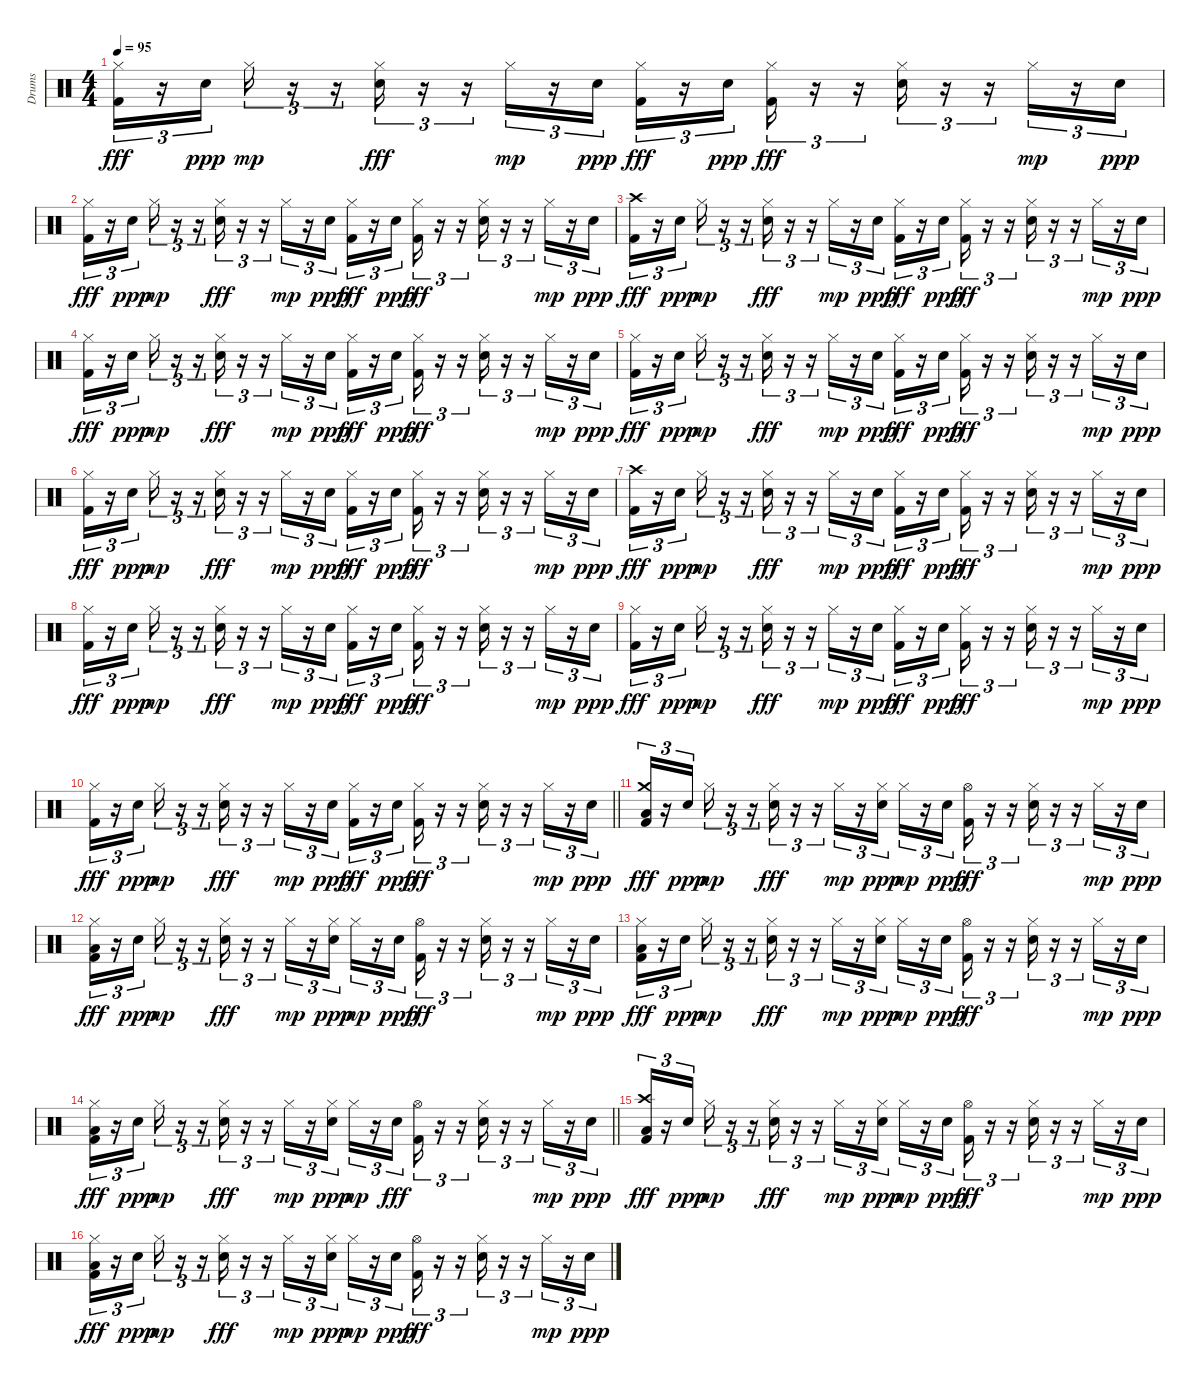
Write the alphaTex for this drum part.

\track ("Drums" "Drums") {instrument percussion}
\staff {score}
\articulation defaults
\ts (4 4)
\tempo 95
\clef neutral
\ks c
("Hi-Hat (closed)" "Kick (hit) 2").16{tu (3 2) dy fff} r.16{tu (3 2)} "Electric Snare (hit)".16{tu (3 2) dy ppp} "Hi-Hat (closed)".16{tu (3 2) dy mp} r.16{tu (3 2)} r.16{tu (3 2)} ("Hi-Hat (closed)" "Electric Snare (hit)").16{tu (3 2) dy fff} r.16{tu (3 2)} r.16{tu (3 2)} "Hi-Hat (closed)".16{tu (3 2) dy mp} r.16{tu (3 2)} "Electric Snare (hit)".16{tu (3 2) dy ppp} ("Hi-Hat (closed)" "Kick (hit) 2").16{tu (3 2) dy fff} r.16{tu (3 2)} "Electric Snare (hit)".16{tu (3 2) dy ppp} ("Hi-Hat (closed)" "Kick (hit) 2").16{tu (3 2) dy fff} r.16{tu (3 2)} r.16{tu (3 2)} ("Hi-Hat (closed)" "Electric Snare (hit)").16{tu (3 2)} r.16{tu (3 2)} r.16{tu (3 2)} "Hi-Hat (closed)".16{tu (3 2) dy mp} r.16{tu (3 2)} "Electric Snare (hit)".16{tu (3 2) dy ppp} |
("Hi-Hat (closed)" "Kick (hit) 2").16{tu (3 2) dy fff} r.16{tu (3 2)} "Electric Snare (hit)".16{tu (3 2) dy ppp} "Hi-Hat (closed)".16{tu (3 2) dy mp} r.16{tu (3 2)} r.16{tu (3 2)} ("Hi-Hat (closed)" "Electric Snare (hit)").16{tu (3 2) dy fff} r.16{tu (3 2)} r.16{tu (3 2)} "Hi-Hat (closed)".16{tu (3 2) dy mp} r.16{tu (3 2)} "Electric Snare (hit)".16{tu (3 2) dy ppp} ("Hi-Hat (closed)" "Kick (hit) 2").16{tu (3 2) dy fff} r.16{tu (3 2)} "Electric Snare (hit)".16{tu (3 2) dy ppp} ("Hi-Hat (closed)" "Kick (hit) 2").16{tu (3 2) dy fff} r.16{tu (3 2)} r.16{tu (3 2)} ("Hi-Hat (closed)" "Electric Snare (hit)").16{tu (3 2)} r.16{tu (3 2)} r.16{tu (3 2)} "Hi-Hat (closed)".16{tu (3 2) dy mp} r.16{tu (3 2)} "Electric Snare (hit)".16{tu (3 2) dy ppp} |
("Crash high (hit)" "Kick (hit) 2").16{tu (3 2) dy fff} r.16{tu (3 2)} "Electric Snare (hit)".16{tu (3 2) dy ppp} "Hi-Hat (closed)".16{tu (3 2) dy mp} r.16{tu (3 2)} r.16{tu (3 2)} ("Hi-Hat (closed)" "Electric Snare (hit)").16{tu (3 2) dy fff} r.16{tu (3 2)} r.16{tu (3 2)} "Hi-Hat (closed)".16{tu (3 2) dy mp} r.16{tu (3 2)} "Electric Snare (hit)".16{tu (3 2) dy ppp} ("Hi-Hat (closed)" "Kick (hit) 2").16{tu (3 2) dy fff} r.16{tu (3 2)} "Electric Snare (hit)".16{tu (3 2) dy ppp} ("Hi-Hat (closed)" "Kick (hit) 2").16{tu (3 2) dy fff} r.16{tu (3 2)} r.16{tu (3 2)} ("Hi-Hat (closed)" "Electric Snare (hit)").16{tu (3 2)} r.16{tu (3 2)} r.16{tu (3 2)} "Hi-Hat (closed)".16{tu (3 2) dy mp} r.16{tu (3 2)} "Electric Snare (hit)".16{tu (3 2) dy ppp} |
("Hi-Hat (closed)" "Kick (hit) 2").16{tu (3 2) dy fff} r.16{tu (3 2)} "Electric Snare (hit)".16{tu (3 2) dy ppp} "Hi-Hat (closed)".16{tu (3 2) dy mp} r.16{tu (3 2)} r.16{tu (3 2)} ("Hi-Hat (closed)" "Electric Snare (hit)").16{tu (3 2) dy fff} r.16{tu (3 2)} r.16{tu (3 2)} "Hi-Hat (closed)".16{tu (3 2) dy mp} r.16{tu (3 2)} "Electric Snare (hit)".16{tu (3 2) dy ppp} ("Hi-Hat (closed)" "Kick (hit) 2").16{tu (3 2) dy fff} r.16{tu (3 2)} "Electric Snare (hit)".16{tu (3 2) dy ppp} ("Hi-Hat (closed)" "Kick (hit) 2").16{tu (3 2) dy fff} r.16{tu (3 2)} r.16{tu (3 2)} ("Hi-Hat (closed)" "Electric Snare (hit)").16{tu (3 2)} r.16{tu (3 2)} r.16{tu (3 2)} "Hi-Hat (closed)".16{tu (3 2) dy mp} r.16{tu (3 2)} "Electric Snare (hit)".16{tu (3 2) dy ppp} |
("Hi-Hat (closed)" "Kick (hit) 2").16{tu (3 2) dy fff} r.16{tu (3 2)} "Electric Snare (hit)".16{tu (3 2) dy ppp} "Hi-Hat (closed)".16{tu (3 2) dy mp} r.16{tu (3 2)} r.16{tu (3 2)} ("Hi-Hat (closed)" "Electric Snare (hit)").16{tu (3 2) dy fff} r.16{tu (3 2)} r.16{tu (3 2)} "Hi-Hat (closed)".16{tu (3 2) dy mp} r.16{tu (3 2)} "Electric Snare (hit)".16{tu (3 2) dy ppp} ("Hi-Hat (closed)" "Kick (hit) 2").16{tu (3 2) dy fff} r.16{tu (3 2)} "Electric Snare (hit)".16{tu (3 2) dy ppp} ("Hi-Hat (closed)" "Kick (hit) 2").16{tu (3 2) dy fff} r.16{tu (3 2)} r.16{tu (3 2)} ("Hi-Hat (closed)" "Electric Snare (hit)").16{tu (3 2)} r.16{tu (3 2)} r.16{tu (3 2)} "Hi-Hat (closed)".16{tu (3 2) dy mp} r.16{tu (3 2)} "Electric Snare (hit)".16{tu (3 2) dy ppp} |
("Hi-Hat (closed)" "Kick (hit) 2").16{tu (3 2) dy fff} r.16{tu (3 2)} "Electric Snare (hit)".16{tu (3 2) dy ppp} "Hi-Hat (closed)".16{tu (3 2) dy mp} r.16{tu (3 2)} r.16{tu (3 2)} ("Hi-Hat (closed)" "Electric Snare (hit)").16{tu (3 2) dy fff} r.16{tu (3 2)} r.16{tu (3 2)} "Hi-Hat (closed)".16{tu (3 2) dy mp} r.16{tu (3 2)} "Electric Snare (hit)".16{tu (3 2) dy ppp} ("Hi-Hat (closed)" "Kick (hit) 2").16{tu (3 2) dy fff} r.16{tu (3 2)} "Electric Snare (hit)".16{tu (3 2) dy ppp} ("Hi-Hat (closed)" "Kick (hit) 2").16{tu (3 2) dy fff} r.16{tu (3 2)} r.16{tu (3 2)} ("Hi-Hat (closed)" "Electric Snare (hit)").16{tu (3 2)} r.16{tu (3 2)} r.16{tu (3 2)} "Hi-Hat (closed)".16{tu (3 2) dy mp} r.16{tu (3 2)} "Electric Snare (hit)".16{tu (3 2) dy ppp} |
("Crash high (hit)" "Kick (hit) 2").16{tu (3 2) dy fff} r.16{tu (3 2)} "Electric Snare (hit)".16{tu (3 2) dy ppp} "Hi-Hat (closed)".16{tu (3 2) dy mp} r.16{tu (3 2)} r.16{tu (3 2)} ("Hi-Hat (closed)" "Electric Snare (hit)").16{tu (3 2) dy fff} r.16{tu (3 2)} r.16{tu (3 2)} "Hi-Hat (closed)".16{tu (3 2) dy mp} r.16{tu (3 2)} "Electric Snare (hit)".16{tu (3 2) dy ppp} ("Hi-Hat (closed)" "Kick (hit) 2").16{tu (3 2) dy fff} r.16{tu (3 2)} "Electric Snare (hit)".16{tu (3 2) dy ppp} ("Hi-Hat (closed)" "Kick (hit) 2").16{tu (3 2) dy fff} r.16{tu (3 2)} r.16{tu (3 2)} ("Hi-Hat (closed)" "Electric Snare (hit)").16{tu (3 2)} r.16{tu (3 2)} r.16{tu (3 2)} "Hi-Hat (closed)".16{tu (3 2) dy mp} r.16{tu (3 2)} "Electric Snare (hit)".16{tu (3 2) dy ppp} |
("Hi-Hat (closed)" "Kick (hit) 2").16{tu (3 2) dy fff} r.16{tu (3 2)} "Electric Snare (hit)".16{tu (3 2) dy ppp} "Hi-Hat (closed)".16{tu (3 2) dy mp} r.16{tu (3 2)} r.16{tu (3 2)} ("Hi-Hat (closed)" "Electric Snare (hit)").16{tu (3 2) dy fff} r.16{tu (3 2)} r.16{tu (3 2)} "Hi-Hat (closed)".16{tu (3 2) dy mp} r.16{tu (3 2)} "Electric Snare (hit)".16{tu (3 2) dy ppp} ("Hi-Hat (closed)" "Kick (hit) 2").16{tu (3 2) dy fff} r.16{tu (3 2)} "Electric Snare (hit)".16{tu (3 2) dy ppp} ("Hi-Hat (closed)" "Kick (hit) 2").16{tu (3 2) dy fff} r.16{tu (3 2)} r.16{tu (3 2)} ("Hi-Hat (closed)" "Electric Snare (hit)").16{tu (3 2)} r.16{tu (3 2)} r.16{tu (3 2)} "Hi-Hat (closed)".16{tu (3 2) dy mp} r.16{tu (3 2)} "Electric Snare (hit)".16{tu (3 2) dy ppp} |
("Hi-Hat (closed)" "Kick (hit) 2").16{tu (3 2) dy fff} r.16{tu (3 2)} "Electric Snare (hit)".16{tu (3 2) dy ppp} "Hi-Hat (closed)".16{tu (3 2) dy mp} r.16{tu (3 2)} r.16{tu (3 2)} ("Hi-Hat (closed)" "Electric Snare (hit)").16{tu (3 2) dy fff} r.16{tu (3 2)} r.16{tu (3 2)} "Hi-Hat (closed)".16{tu (3 2) dy mp} r.16{tu (3 2)} "Electric Snare (hit)".16{tu (3 2) dy ppp} ("Hi-Hat (closed)" "Kick (hit) 2").16{tu (3 2) dy fff} r.16{tu (3 2)} "Electric Snare (hit)".16{tu (3 2) dy ppp} ("Hi-Hat (closed)" "Kick (hit) 2").16{tu (3 2) dy fff} r.16{tu (3 2)} r.16{tu (3 2)} ("Hi-Hat (closed)" "Electric Snare (hit)").16{tu (3 2)} r.16{tu (3 2)} r.16{tu (3 2)} "Hi-Hat (closed)".16{tu (3 2) dy mp} r.16{tu (3 2)} "Electric Snare (hit)".16{tu (3 2) dy ppp} |
\barLineRight lightlight
("Hi-Hat (closed)" "Kick (hit) 2").16{tu (3 2) dy fff} r.16{tu (3 2)} "Electric Snare (hit)".16{tu (3 2) dy ppp} "Hi-Hat (closed)".16{tu (3 2) dy mp} r.16{tu (3 2)} r.16{tu (3 2)} ("Hi-Hat (closed)" "Electric Snare (hit)").16{tu (3 2) dy fff} r.16{tu (3 2)} r.16{tu (3 2)} "Hi-Hat (closed)".16{tu (3 2) dy mp} r.16{tu (3 2)} "Electric Snare (hit)".16{tu (3 2) dy ppp} ("Hi-Hat (closed)" "Kick (hit) 2").16{tu (3 2) dy fff} r.16{tu (3 2)} "Electric Snare (hit)".16{tu (3 2) dy ppp} ("Hi-Hat (closed)" "Kick (hit) 2").16{tu (3 2) dy fff} r.16{tu (3 2)} r.16{tu (3 2)} ("Hi-Hat (closed)" "Electric Snare (hit)").16{tu (3 2)} r.16{tu (3 2)} r.16{tu (3 2)} "Hi-Hat (closed)".16{tu (3 2) dy mp} r.16{tu (3 2)} "Electric Snare (hit)".16{tu (3 2) dy ppp} |
("Crash medium (hit)" "Low Floor Tom (hit)" "Kick (hit) 2").16{tu (3 2) dy fff} r.16{tu (3 2)} "Electric Snare (hit)".16{tu (3 2) dy ppp} "Hi-Hat (closed)".16{tu (3 2) dy mp} r.16{tu (3 2)} r.16{tu (3 2)} ("Hi-Hat (closed)" "Electric Snare (hit)").16{tu (3 2) dy fff} r.16{tu (3 2)} r.16{tu (3 2)} "Hi-Hat (closed)".16{tu (3 2) dy mp} r.16{tu (3 2)} ("Hi-Hat (closed)" "Electric Snare (hit)").16{tu (3 2) dy ppp} "Hi-Hat (closed)".16{tu (3 2) dy mp} r.16{tu (3 2)} "Electric Snare (hit)".16{tu (3 2) dy ppp} ("Hi-Hat (open)" "Kick (hit) 2").16{tu (3 2) dy fff} r.16{tu (3 2)} r.16{tu (3 2)} ("Hi-Hat (closed)" "Electric Snare (hit)").16{tu (3 2)} r.16{tu (3 2)} r.16{tu (3 2)} "Hi-Hat (closed)".16{tu (3 2) dy mp} r.16{tu (3 2)} "Electric Snare (hit)".16{tu (3 2) dy ppp} |
("Hi-Hat (closed)" "Low Floor Tom (hit)" "Kick (hit) 2").16{tu (3 2) dy fff} r.16{tu (3 2)} "Electric Snare (hit)".16{tu (3 2) dy ppp} "Hi-Hat (closed)".16{tu (3 2) dy mp} r.16{tu (3 2)} r.16{tu (3 2)} ("Hi-Hat (closed)" "Electric Snare (hit)").16{tu (3 2) dy fff} r.16{tu (3 2)} r.16{tu (3 2)} "Hi-Hat (closed)".16{tu (3 2) dy mp} r.16{tu (3 2)} ("Hi-Hat (closed)" "Electric Snare (hit)").16{tu (3 2) dy ppp} "Hi-Hat (closed)".16{tu (3 2) dy mp} r.16{tu (3 2)} "Electric Snare (hit)".16{tu (3 2) dy ppp} ("Hi-Hat (open)" "Kick (hit) 2").16{tu (3 2) dy fff} r.16{tu (3 2)} r.16{tu (3 2)} ("Hi-Hat (closed)" "Electric Snare (hit)").16{tu (3 2)} r.16{tu (3 2)} r.16{tu (3 2)} "Hi-Hat (closed)".16{tu (3 2) dy mp} r.16{tu (3 2)} "Electric Snare (hit)".16{tu (3 2) dy ppp} |
("Hi-Hat (closed)" "Low Floor Tom (hit)" "Kick (hit) 2").16{tu (3 2) dy fff} r.16{tu (3 2)} "Electric Snare (hit)".16{tu (3 2) dy ppp} "Hi-Hat (closed)".16{tu (3 2) dy mp} r.16{tu (3 2)} r.16{tu (3 2)} ("Hi-Hat (closed)" "Electric Snare (hit)").16{tu (3 2) dy fff} r.16{tu (3 2)} r.16{tu (3 2)} "Hi-Hat (closed)".16{tu (3 2) dy mp} r.16{tu (3 2)} ("Hi-Hat (closed)" "Electric Snare (hit)").16{tu (3 2) dy ppp} "Hi-Hat (closed)".16{tu (3 2) dy mp} r.16{tu (3 2)} "Electric Snare (hit)".16{tu (3 2) dy ppp} ("Hi-Hat (open)" "Kick (hit) 2").16{tu (3 2) dy fff} r.16{tu (3 2)} r.16{tu (3 2)} ("Hi-Hat (closed)" "Electric Snare (hit)").16{tu (3 2)} r.16{tu (3 2)} r.16{tu (3 2)} "Hi-Hat (closed)".16{tu (3 2) dy mp} r.16{tu (3 2)} "Electric Snare (hit)".16{tu (3 2) dy ppp} |
\barLineRight lightlight
("Hi-Hat (closed)" "Low Floor Tom (hit)" "Kick (hit) 2").16{tu (3 2) dy fff} r.16{tu (3 2)} "Electric Snare (hit)".16{tu (3 2) dy ppp} "Hi-Hat (closed)".16{tu (3 2) dy mp} r.16{tu (3 2)} r.16{tu (3 2)} ("Hi-Hat (closed)" "Electric Snare (hit)").16{tu (3 2) dy fff} r.16{tu (3 2)} r.16{tu (3 2)} "Hi-Hat (closed)".16{tu (3 2) dy mp} r.16{tu (3 2)} ("Hi-Hat (closed)" "Electric Snare (hit)").16{tu (3 2) dy ppp} "Hi-Hat (closed)".16{tu (3 2) dy mp} r.16{tu (3 2)} "Electric Snare (hit)".16{tu (3 2) dy fff} ("Hi-Hat (open)" "Kick (hit) 2").16{tu (3 2)} r.16{tu (3 2)} r.16{tu (3 2)} ("Hi-Hat (closed)" "Electric Snare (hit)").16{tu (3 2)} r.16{tu (3 2)} r.16{tu (3 2)} "Hi-Hat (closed)".16{tu (3 2) dy mp} r.16{tu (3 2)} "Electric Snare (hit)".16{tu (3 2) dy ppp} |
("Crash high (hit)" "Low Floor Tom (hit)" "Kick (hit) 2").16{tu (3 2) dy fff} r.16{tu (3 2)} "Electric Snare (hit)".16{tu (3 2) dy ppp} "Hi-Hat (closed)".16{tu (3 2) dy mp} r.16{tu (3 2)} r.16{tu (3 2)} ("Hi-Hat (closed)" "Electric Snare (hit)").16{tu (3 2) dy fff} r.16{tu (3 2)} r.16{tu (3 2)} "Hi-Hat (closed)".16{tu (3 2) dy mp} r.16{tu (3 2)} ("Hi-Hat (closed)" "Electric Snare (hit)").16{tu (3 2) dy ppp} "Hi-Hat (closed)".16{tu (3 2) dy mp} r.16{tu (3 2)} "Electric Snare (hit)".16{tu (3 2) dy ppp} ("Hi-Hat (open)" "Kick (hit) 2").16{tu (3 2) dy fff} r.16{tu (3 2)} r.16{tu (3 2)} ("Hi-Hat (closed)" "Electric Snare (hit)").16{tu (3 2)} r.16{tu (3 2)} r.16{tu (3 2)} "Hi-Hat (closed)".16{tu (3 2) dy mp} r.16{tu (3 2)} "Electric Snare (hit)".16{tu (3 2) dy ppp} |
("Hi-Hat (closed)" "Low Floor Tom (hit)" "Kick (hit) 2").16{tu (3 2) dy fff} r.16{tu (3 2)} "Electric Snare (hit)".16{tu (3 2) dy ppp} "Hi-Hat (closed)".16{tu (3 2) dy mp} r.16{tu (3 2)} r.16{tu (3 2)} ("Hi-Hat (closed)" "Electric Snare (hit)").16{tu (3 2) dy fff} r.16{tu (3 2)} r.16{tu (3 2)} "Hi-Hat (closed)".16{tu (3 2) dy mp} r.16{tu (3 2)} ("Hi-Hat (closed)" "Electric Snare (hit)").16{tu (3 2) dy ppp} "Hi-Hat (closed)".16{tu (3 2) dy mp} r.16{tu (3 2)} "Electric Snare (hit)".16{tu (3 2) dy ppp} ("Hi-Hat (open)" "Kick (hit) 2").16{tu (3 2) dy fff} r.16{tu (3 2)} r.16{tu (3 2)} ("Hi-Hat (closed)" "Electric Snare (hit)").16{tu (3 2)} r.16{tu (3 2)} r.16{tu (3 2)} "Hi-Hat (closed)".16{tu (3 2) dy mp} r.16{tu (3 2)} "Electric Snare (hit)".16{tu (3 2) dy ppp}
